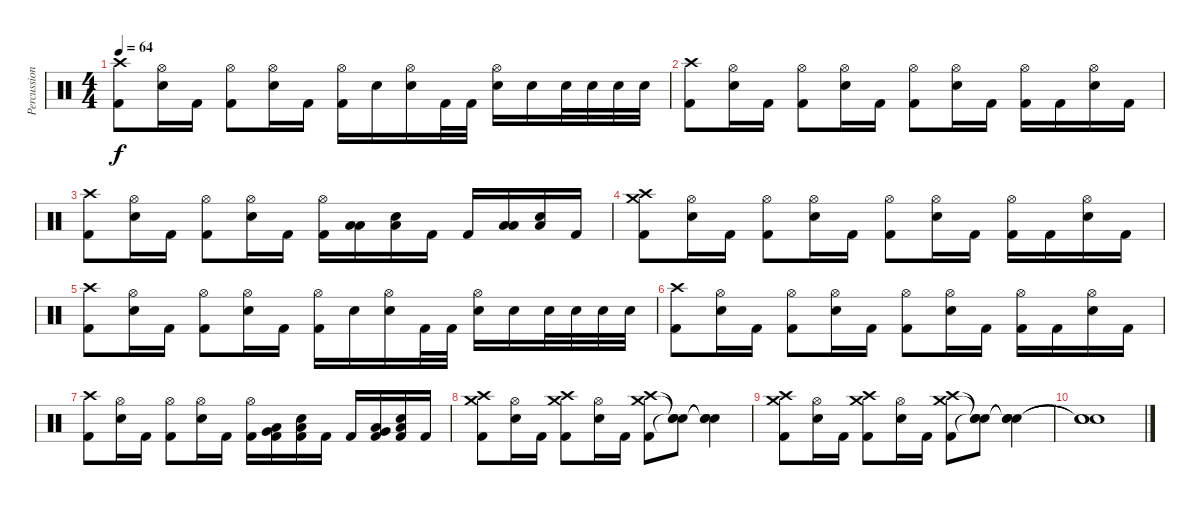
\track ("Percussion" "Percussion") {instrument percussion}
\staff {score}
\articulation defaults
\ts (4 4)
\tempo 64
\clef neutral
\ks c
("Crash high (hit)" "Kick (hit) 2").8{dy f} ("Hi-Hat (open)" "Electric Snare (hit)").16 "Kick (hit) 2".16 ("Hi-Hat (open)" "Kick (hit) 2").8 ("Hi-Hat (open)" "Electric Snare (hit)").16 "Kick (hit) 2".16 ("Hi-Hat (open)" "Kick (hit) 2").16 "Electric Snare (hit)".16 ("Hi-Hat (open)" "Electric Snare (hit)").16 "Kick (hit) 2".32 "Kick (hit) 2".32 ("Hi-Hat (open)" "Electric Snare (hit)").16 "Electric Snare (hit)".16 "Electric Snare (hit)".32 "Electric Snare (hit)".32 "Electric Snare (hit)".32 "Electric Snare (hit)".32 |
("Crash high (hit)" "Kick (hit) 2").8 ("Hi-Hat (open)" "Electric Snare (hit)").16 "Kick (hit) 2".16 ("Hi-Hat (open)" "Kick (hit) 2").8 ("Hi-Hat (open)" "Electric Snare (hit)").16 "Kick (hit) 2".16 ("Hi-Hat (open)" "Kick (hit) 2").8 ("Hi-Hat (open)" "Electric Snare (hit)").16 "Kick (hit) 2".16 ("Hi-Hat (open)" "Kick (hit) 2").16 "Kick (hit) 2".16 ("Hi-Hat (open)" "Electric Snare (hit)").16 "Kick (hit) 2".16 |
("Crash high (hit)" "Kick (hit) 2").8 ("Hi-Hat (open)" "Electric Snare (hit)").16 "Kick (hit) 2".16 ("Hi-Hat (open)" "Kick (hit) 2").8 ("Hi-Hat (open)" "Electric Snare (hit)").16 "Kick (hit) 2".16 ("Hi-Hat (open)" "Kick (hit) 2").16 ("Low Floor Tom (hit)" "Low Tom (hit)").16 ("Low Floor Tom (hit)" "Electric Snare (hit)").16 "Kick (hit) 2".16 "Kick (hit) 2".16 ("Low Tom (hit)" "Low Floor Tom (hit)").16 ("Low Floor Tom (hit)" "Electric Snare (hit)").16 "Kick (hit) 2".16 |
("Crash high (hit)" "Crash medium (hit)" "Kick (hit) 2").8 ("Hi-Hat (open)" "Electric Snare (hit)").16 "Kick (hit) 2".16 ("Hi-Hat (open)" "Kick (hit) 2").8 ("Hi-Hat (open)" "Electric Snare (hit)").16 "Kick (hit) 2".16 ("Hi-Hat (open)" "Kick (hit) 2").8 ("Hi-Hat (open)" "Electric Snare (hit)").16 "Kick (hit) 2".16 ("Hi-Hat (open)" "Kick (hit) 2").16 "Kick (hit) 2".16 ("Hi-Hat (open)" "Electric Snare (hit)").16 "Kick (hit) 2".16 |
("Crash high (hit)" "Kick (hit) 2").8 ("Hi-Hat (open)" "Electric Snare (hit)").16 "Kick (hit) 2".16 ("Hi-Hat (open)" "Kick (hit) 2").8 ("Hi-Hat (open)" "Electric Snare (hit)").16 "Kick (hit) 2".16 ("Hi-Hat (open)" "Kick (hit) 2").16 "Electric Snare (hit)".16 ("Hi-Hat (open)" "Electric Snare (hit)").16 "Kick (hit) 2".32 "Kick (hit) 2".32 ("Hi-Hat (open)" "Electric Snare (hit)").16 "Electric Snare (hit)".16 "Electric Snare (hit)".32 "Electric Snare (hit)".32 "Electric Snare (hit)".32 "Electric Snare (hit)".32 |
("Crash high (hit)" "Kick (hit) 2").8 ("Hi-Hat (open)" "Electric Snare (hit)").16 "Kick (hit) 2".16 ("Hi-Hat (open)" "Kick (hit) 2").8 ("Hi-Hat (open)" "Electric Snare (hit)").16 "Kick (hit) 2".16 ("Hi-Hat (open)" "Kick (hit) 2").8 ("Hi-Hat (open)" "Electric Snare (hit)").16 "Kick (hit) 2".16 ("Hi-Hat (open)" "Kick (hit) 2").16 "Kick (hit) 2".16 ("Hi-Hat (open)" "Electric Snare (hit)").16 "Kick (hit) 2".16 |
("Crash high (hit)" "Kick (hit) 2").8 ("Hi-Hat (open)" "Electric Snare (hit)").16 "Kick (hit) 2".16 ("Hi-Hat (open)" "Kick (hit) 2").8 ("Hi-Hat (open)" "Electric Snare (hit)").16 "Kick (hit) 2".16 ("Hi-Hat (open)" "Kick (hit) 2").16 ("Very Low Tom (hit)" "Low Floor Tom (hit)" "Kick (hit) 2").16 ("Low Floor Tom (hit)" "Electric Snare (hit)" "Kick (hit) 2").16 "Kick (hit) 2".16 "Kick (hit) 2".16 ("Very Low Tom (hit)" "Low Floor Tom (hit)" "Kick (hit) 2").16 ("Low Floor Tom (hit)" "Electric Snare (hit)" "Kick (hit) 2").16 "Kick (hit) 2".16 |
("Crash high (hit)" "Crash medium (hit)" "Kick (hit) 2").8 ("Hi-Hat (open)" "Electric Snare (hit)").16 "Kick (hit) 2".16 ("Crash high (hit)" "Crash medium (hit)" "Kick (hit) 2").8 ("Hi-Hat (open)" "Electric Snare (hit)").16 "Kick (hit) 2".16 ("Crash high (hit)" "Crash medium (hit)" "Kick (hit) 2").8 ("Snare (hit)"{t} "Snare (hit)"{t} "Snare (hit)"{t}).8 ("Snare (hit)"{t} "Snare (hit)"{t} "Snare (hit)"{t}).4 |
("Crash high (hit)" "Crash medium (hit)" "Kick (hit) 2").8 ("Hi-Hat (open)" "Electric Snare (hit)").16 "Kick (hit) 2".16 ("Crash high (hit)" "Crash medium (hit)" "Kick (hit) 2").8 ("Hi-Hat (open)" "Electric Snare (hit)").16 "Kick (hit) 2".16 ("Crash high (hit)" "Crash medium (hit)" "Kick (hit) 2").8 ("Snare (hit)"{t} "Snare (hit)"{t} "Snare (hit)"{t}).8 ("Snare (hit)"{t} "Snare (hit)"{t} "Snare (hit)"{t}).4 |
("Snare (hit)"{t} "Snare (hit)"{t} "Snare (hit)"{t}).1
